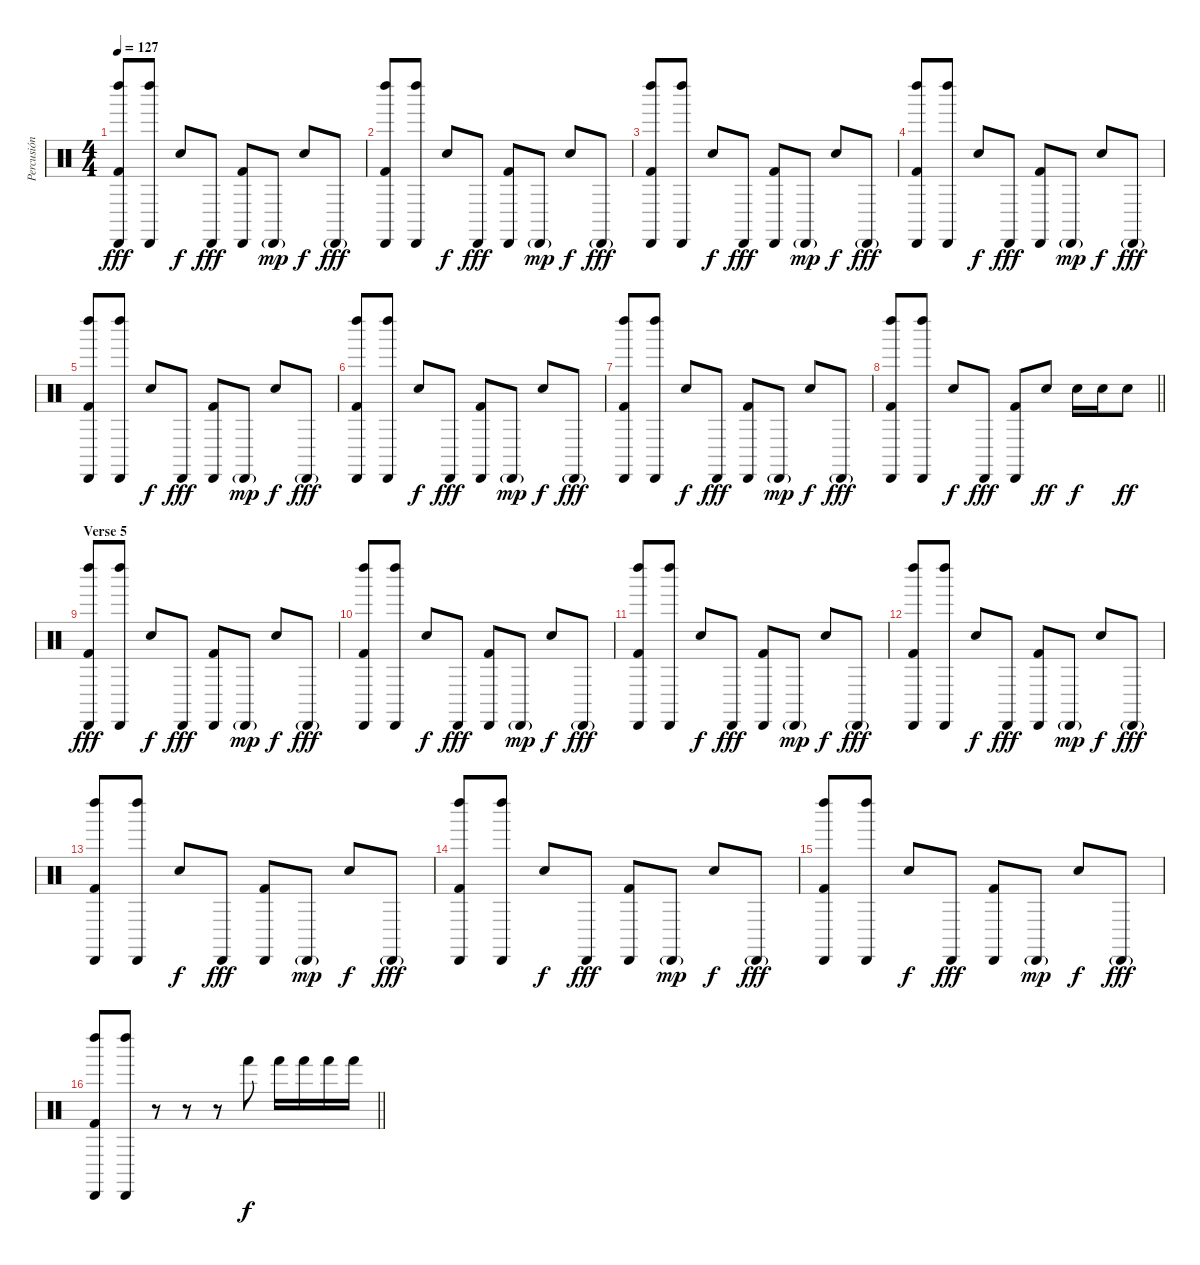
\track ("Percusión" "Percusión") {instrument percussion}
\staff {score}
\articulation defaults
\ts (4 4)
\tempo 127
\clef neutral
\ks c
("Left Maraca (hit)" "Cabasa (hit)" "Kick (hit) 2").8{dy fff} ("Left Maraca (hit)" "Cabasa (hit)").8 "Electric Snare (hit)".8{dy f} "Cabasa (hit)".8{dy fff} ("Cabasa (hit)" "Kick (hit) 2").8 "Cabasa (hit)"{g}.8{dy mp} "Electric Snare (hit)".8{dy f} "Cabasa (hit)"{g}.8{dy fff} |
("Left Maraca (hit)" "Cabasa (hit)" "Kick (hit) 2").8 ("Left Maraca (hit)" "Cabasa (hit)").8 "Electric Snare (hit)".8{dy f} "Cabasa (hit)".8{dy fff} ("Cabasa (hit)" "Kick (hit) 2").8 "Cabasa (hit)"{g}.8{dy mp} "Electric Snare (hit)".8{dy f} "Cabasa (hit)"{g}.8{dy fff} |
("Left Maraca (hit)" "Cabasa (hit)" "Kick (hit) 2").8 ("Left Maraca (hit)" "Cabasa (hit)").8 "Electric Snare (hit)".8{dy f} "Cabasa (hit)".8{dy fff} ("Cabasa (hit)" "Kick (hit) 2").8 "Cabasa (hit)"{g}.8{dy mp} "Electric Snare (hit)".8{dy f} "Cabasa (hit)"{g}.8{dy fff} |
("Left Maraca (hit)" "Cabasa (hit)" "Kick (hit) 2").8 ("Left Maraca (hit)" "Cabasa (hit)").8 "Electric Snare (hit)".8{dy f} "Cabasa (hit)".8{dy fff} ("Cabasa (hit)" "Kick (hit) 2").8 "Cabasa (hit)"{g}.8{dy mp} "Electric Snare (hit)".8{dy f} "Cabasa (hit)"{g}.8{dy fff} |
("Left Maraca (hit)" "Cabasa (hit)" "Kick (hit) 2").8 ("Left Maraca (hit)" "Cabasa (hit)").8 "Electric Snare (hit)".8{dy f} "Cabasa (hit)".8{dy fff} ("Cabasa (hit)" "Kick (hit) 2").8 "Cabasa (hit)"{g}.8{dy mp} "Electric Snare (hit)".8{dy f} "Cabasa (hit)"{g}.8{dy fff} |
("Left Maraca (hit)" "Cabasa (hit)" "Kick (hit) 2").8 ("Left Maraca (hit)" "Cabasa (hit)").8 "Electric Snare (hit)".8{dy f} "Cabasa (hit)".8{dy fff} ("Cabasa (hit)" "Kick (hit) 2").8 "Cabasa (hit)"{g}.8{dy mp} "Electric Snare (hit)".8{dy f} "Cabasa (hit)"{g}.8{dy fff} |
("Left Maraca (hit)" "Cabasa (hit)" "Kick (hit) 2").8 ("Left Maraca (hit)" "Cabasa (hit)").8 "Electric Snare (hit)".8{dy f} "Cabasa (hit)".8{dy fff} ("Cabasa (hit)" "Kick (hit) 2").8 "Cabasa (hit)"{g}.8{dy mp} "Electric Snare (hit)".8{dy f} "Cabasa (hit)"{g}.8{dy fff} |
\barLineRight lightlight
("Left Maraca (hit)" "Cabasa (hit)" "Kick (hit) 2").8 ("Left Maraca (hit)" "Cabasa (hit)").8 "Electric Snare (hit)".8{dy f} "Cabasa (hit)".8{dy fff} ("Cabasa (hit)" "Kick (hit) 2").8 "Electric Snare (hit)".8{dy ff} "Electric Snare (hit)".16{dy f} "Electric Snare (hit)".16 "Electric Snare (hit)".8{dy ff} |
\section ("" "Verse 5")
("Left Maraca (hit)" "Cabasa (hit)" "Kick (hit) 2").8{dy fff} ("Left Maraca (hit)" "Cabasa (hit)").8 "Electric Snare (hit)".8{dy f} "Cabasa (hit)".8{dy fff} ("Cabasa (hit)" "Kick (hit) 2").8 "Cabasa (hit)"{g}.8{dy mp} "Electric Snare (hit)".8{dy f} "Cabasa (hit)"{g}.8{dy fff} |
("Left Maraca (hit)" "Cabasa (hit)" "Kick (hit) 2").8 ("Left Maraca (hit)" "Cabasa (hit)").8 "Electric Snare (hit)".8{dy f} "Cabasa (hit)".8{dy fff} ("Cabasa (hit)" "Kick (hit) 2").8 "Cabasa (hit)"{g}.8{dy mp} "Electric Snare (hit)".8{dy f} "Cabasa (hit)"{g}.8{dy fff} |
("Left Maraca (hit)" "Cabasa (hit)" "Kick (hit) 2").8 ("Left Maraca (hit)" "Cabasa (hit)").8 "Electric Snare (hit)".8{dy f} "Cabasa (hit)".8{dy fff} ("Cabasa (hit)" "Kick (hit) 2").8 "Cabasa (hit)"{g}.8{dy mp} "Electric Snare (hit)".8{dy f} "Cabasa (hit)"{g}.8{dy fff} |
("Left Maraca (hit)" "Cabasa (hit)" "Kick (hit) 2").8 ("Left Maraca (hit)" "Cabasa (hit)").8 "Electric Snare (hit)".8{dy f} "Cabasa (hit)".8{dy fff} ("Cabasa (hit)" "Kick (hit) 2").8 "Cabasa (hit)"{g}.8{dy mp} "Electric Snare (hit)".8{dy f} "Cabasa (hit)"{g}.8{dy fff} |
("Left Maraca (hit)" "Cabasa (hit)" "Kick (hit) 2").8 ("Left Maraca (hit)" "Cabasa (hit)").8 "Electric Snare (hit)".8{dy f} "Cabasa (hit)".8{dy fff} ("Cabasa (hit)" "Kick (hit) 2").8 "Cabasa (hit)"{g}.8{dy mp} "Electric Snare (hit)".8{dy f} "Cabasa (hit)"{g}.8{dy fff} |
("Left Maraca (hit)" "Cabasa (hit)" "Kick (hit) 2").8 ("Left Maraca (hit)" "Cabasa (hit)").8 "Electric Snare (hit)".8{dy f} "Cabasa (hit)".8{dy fff} ("Cabasa (hit)" "Kick (hit) 2").8 "Cabasa (hit)"{g}.8{dy mp} "Electric Snare (hit)".8{dy f} "Cabasa (hit)"{g}.8{dy fff} |
("Left Maraca (hit)" "Cabasa (hit)" "Kick (hit) 2").8 ("Left Maraca (hit)" "Cabasa (hit)").8 "Electric Snare (hit)".8{dy f} "Cabasa (hit)".8{dy fff} ("Cabasa (hit)" "Kick (hit) 2").8 "Cabasa (hit)"{g}.8{dy mp} "Electric Snare (hit)".8{dy f} "Cabasa (hit)"{g}.8{dy fff} |
\barLineRight lightlight
("Left Maraca (hit)" "Cabasa (hit)" "Kick (hit) 2").8 ("Left Maraca (hit)" "Cabasa (hit)").8 r.8 r.8 r.8 "Hand (hit)".8{dy f} "Hand (hit)".16 "Hand (hit)".16 "Hand (hit)".16 "Hand (hit)".16
